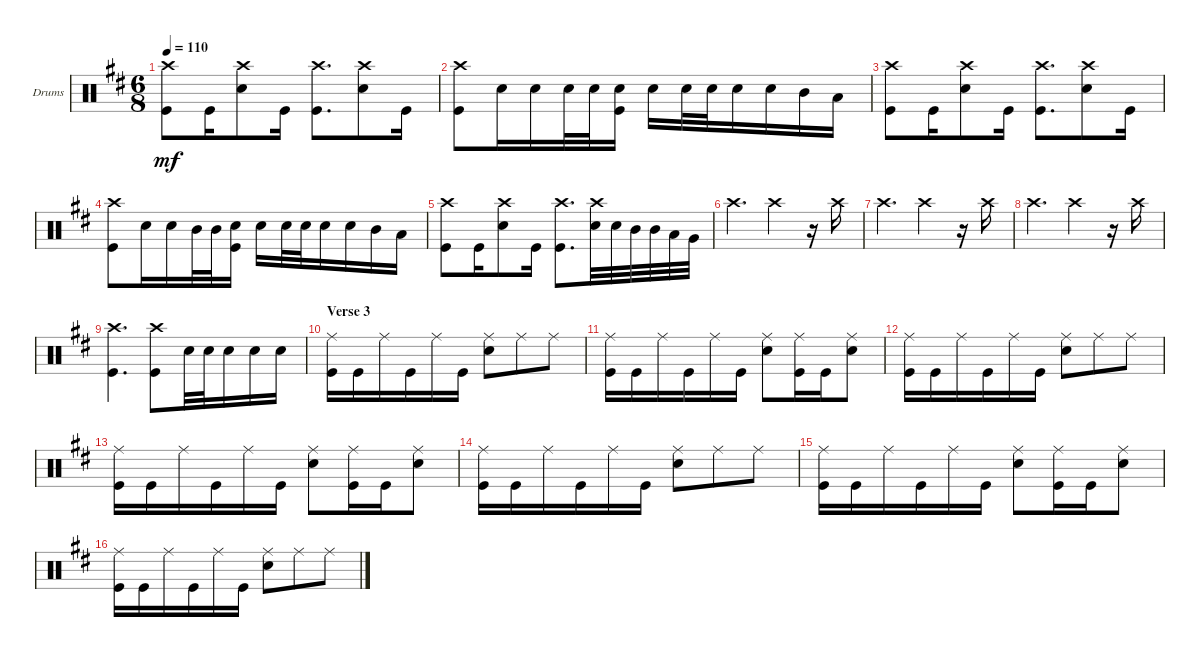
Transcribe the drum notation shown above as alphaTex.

\defaultSystemsLayout 4
\bracketExtendMode groupsimilarinstruments
\firstSystemTrackNameOrientation horizontal
\otherSystemsTrackNameOrientation horizontal
\track ("Drumkit" "Drums") {instrument percussion}
\staff {score}
\articulation defaults
\ts (6 8)
\tempo 110
\clef neutral
\ks d
("Kick (hit)" "Crash high (hit)").8{dy mf} "Kick (hit)".16 ("Snare (hit) 2" "Crash high (hit)").8 "Kick (hit)".16 ("Kick (hit)" "Crash high (hit)").8{d} ("Snare (hit) 2" "Crash high (hit)").8 "Kick (hit)".16 |
("Kick (hit)" "Crash high (hit)").8 "Snare (hit) 2".16 "Snare (hit) 2".16 "Snare (hit) 2".32 "Snare (hit) 2".32 ("Kick (hit)" "Snare (hit) 2").16 "Snare (hit) 2".16 "Snare (hit) 2".32 "Snare (hit) 2".32 "Snare (hit) 2".16 "Snare (hit) 2".16 "Mid Tom (hit)".16 "Low Tom (hit)".16 |
("Kick (hit)" "Crash high (hit)").8 "Kick (hit)".16 ("Snare (hit) 2" "Crash high (hit)").8 "Kick (hit)".16 ("Kick (hit)" "Crash high (hit)").8{d} ("Snare (hit) 2" "Crash high (hit)").8 "Kick (hit)".16 |
("Kick (hit)" "Crash high (hit)").8 "Snare (hit) 2".16 "Snare (hit) 2".16 "Mid Tom (hit)".32 "Mid Tom (hit)".32 ("Kick (hit)" "Snare (hit) 2").16 "Snare (hit) 2".16 "Snare (hit) 2".32 "Snare (hit) 2".32 "Snare (hit) 2".16 "Snare (hit) 2".16 "Mid Tom (hit)".16 "Low Tom (hit)".16 |
("Kick (hit)" "Crash high (hit)").8 "Kick (hit)".16 ("Snare (hit) 2" "Crash high (hit)").8 "Kick (hit)".16 ("Kick (hit)" "Crash high (hit)").8{d} ("Snare (hit) 2" "Crash high (hit)").32 "Snare (hit) 2".32 "Mid Tom (hit)".32 "Mid Tom (hit)".32 "Low Tom (hit)".32 "Very Low Tom (hit)".32 |
"Crash high (hit)".4{d} "Crash high (hit)".4 r.16 "Crash high (hit)".16 |
"Crash high (hit)".4{d} "Crash high (hit)".4 r.16 "Crash high (hit)".16 |
"Crash high (hit)".4{d} "Crash high (hit)".4 r.16 "Crash high (hit)".16 |
("Kick (hit)" "Crash high (hit)").4{d} ("Kick (hit)" "Crash high (hit)").8 "Snare (hit) 2".32 "Snare (hit) 2".32 "Snare (hit) 2".16 "Snare (hit) 2".16 "Snare (hit) 2".16 |
\section ("" "Verse 3")
("Kick (hit)" "Ride (middle)").16 "Kick (hit)".16 "Ride (middle)".16 "Kick (hit)".16 "Ride (middle)".16 "Kick (hit)".16 ("Snare (hit) 2" "Ride (middle)").8 "Ride (middle)".8 "Ride (middle)".8 |
("Kick (hit)" "Ride (middle)").16 "Kick (hit)".16 "Ride (middle)".16 "Kick (hit)".16 "Ride (middle)".16 "Kick (hit)".16 ("Snare (hit) 2" "Ride (middle)").8 ("Kick (hit)" "Ride (middle)").16 "Kick (hit)".16 ("Snare (hit) 2" "Ride (middle)").8 |
("Kick (hit)" "Ride (middle)").16 "Kick (hit)".16 "Ride (middle)".16 "Kick (hit)".16 "Ride (middle)".16 "Kick (hit)".16 ("Snare (hit) 2" "Ride (middle)").8 "Ride (middle)".8 "Ride (middle)".8 |
("Kick (hit)" "Ride (middle)").16 "Kick (hit)".16 "Ride (middle)".16 "Kick (hit)".16 "Ride (middle)".16 "Kick (hit)".16 ("Snare (hit) 2" "Ride (middle)").8 ("Kick (hit)" "Ride (middle)").16 "Kick (hit)".16 ("Snare (hit) 2" "Ride (middle)").8 |
("Kick (hit)" "Ride (middle)").16 "Kick (hit)".16 "Ride (middle)".16 "Kick (hit)".16 "Ride (middle)".16 "Kick (hit)".16 ("Snare (hit) 2" "Ride (middle)").8 "Ride (middle)".8 "Ride (middle)".8 |
("Kick (hit)" "Ride (middle)").16 "Kick (hit)".16 "Ride (middle)".16 "Kick (hit)".16 "Ride (middle)".16 "Kick (hit)".16 ("Snare (hit) 2" "Ride (middle)").8 ("Kick (hit)" "Ride (middle)").16 "Kick (hit)".16 ("Snare (hit) 2" "Ride (middle)").8 |
("Kick (hit)" "Ride (middle)").16 "Kick (hit)".16 "Ride (middle)".16 "Kick (hit)".16 "Ride (middle)".16 "Kick (hit)".16 ("Snare (hit) 2" "Ride (middle)").8 "Ride (middle)".8 "Ride (middle)".8
